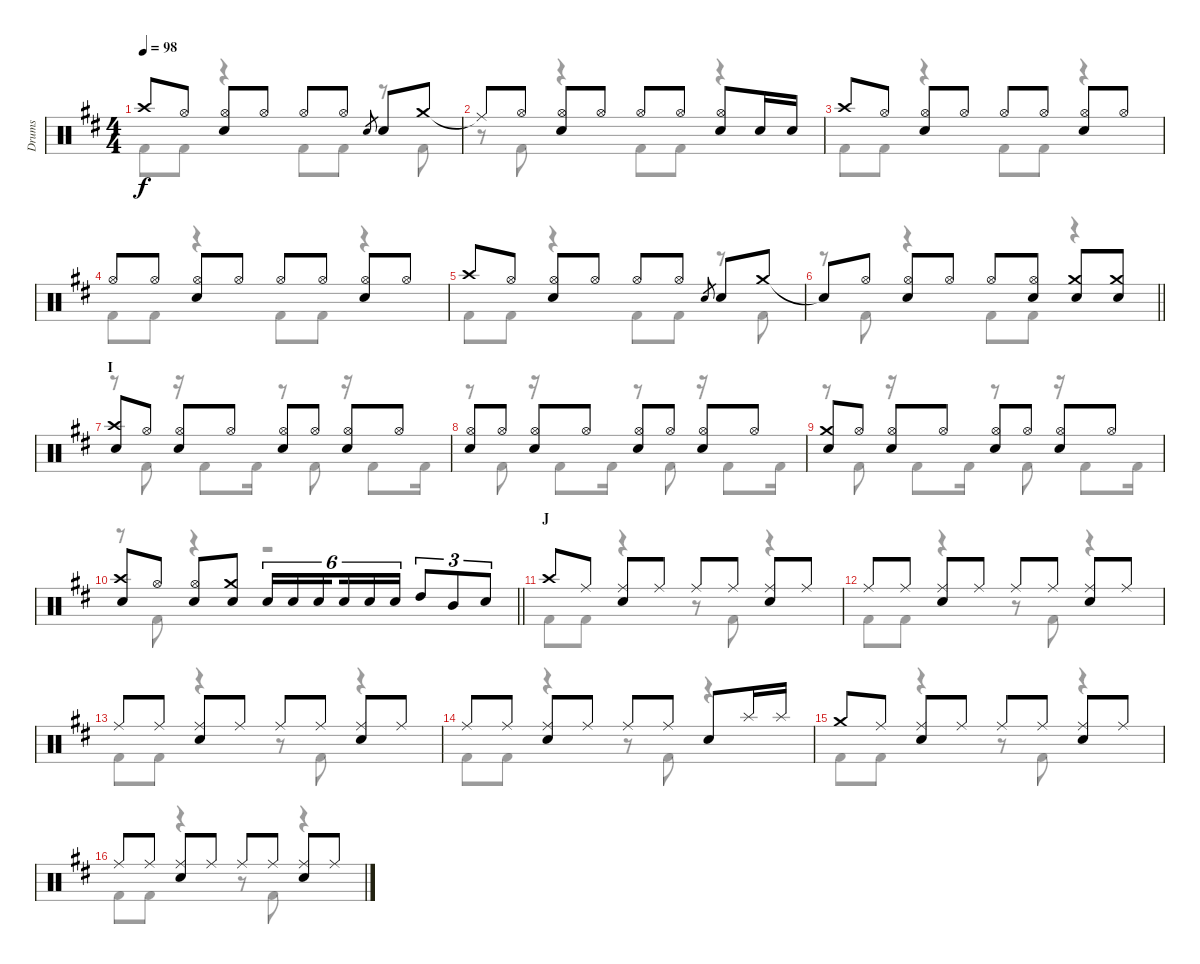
\track ("Drums" "Drums") {instrument percussion}
\staff {score}
\articulation defaults
\voice
\ts (4 4)
\tempo 98
\clef neutral
\ks d "Crash high (hit)".8{dy f} "Hi-Hat (open)".8
("Hi-Hat (open)" "Snare (hit) 2").8 "Hi-Hat (open)".8 "Hi-Hat (open)".8 "Hi-Hat (open)".8 "Snare (hit) 2".8{gr} "Snare (hit) 2".8 "Crash medium (hit)".8 |
"Ride (middle)"{t}.8 "Hi-Hat (open)".8 ("Hi-Hat (open)" "Snare (hit) 2").8 "Hi-Hat (open)".8 "Hi-Hat (open)".8 "Hi-Hat (open)".8 ("Hi-Hat (open)" "Snare (hit) 2").8 "Snare (hit) 2".16 "Snare (hit) 2".16 |
"Crash high (hit)".8 "Hi-Hat (open)".8 ("Hi-Hat (open)" "Snare (hit) 2").8 "Hi-Hat (open)".8 "Hi-Hat (open)".8 "Hi-Hat (open)".8 ("Hi-Hat (open)" "Snare (hit) 2").8 "Hi-Hat (open)".8 |
"Hi-Hat (open)".8 "Hi-Hat (open)".8 ("Hi-Hat (open)" "Snare (hit) 2").8 "Hi-Hat (open)".8 "Hi-Hat (open)".8 "Hi-Hat (open)".8 ("Hi-Hat (open)" "Snare (hit) 2").8 "Hi-Hat (open)".8 |
"Crash high (hit)".8 "Hi-Hat (open)".8 ("Hi-Hat (open)" "Snare (hit) 2").8 "Hi-Hat (open)".8 "Hi-Hat (open)".8 "Hi-Hat (open)".8 "Snare (hit) 2".8{gr} "Snare (hit) 2".8 "Crash medium (hit)".8 |
\barLineRight lightlight "Snare (hit)"{t}.8 "Hi-Hat (open)".8
("Hi-Hat (open)" "Snare (hit) 2").8 "Hi-Hat (open)".8 "Hi-Hat (open)".8 ("Hi-Hat (open)" "Snare (hit) 2").8 ("Crash medium (hit)" "Snare (hit) 2").8 ("Crash medium (hit)" "Snare (hit) 2").8 |
\section ("" "I")
("Crash high (hit)" "Snare (hit) 2").8 "Hi-Hat (open)".8 ("Hi-Hat (open)" "Snare (hit) 2").8 "Hi-Hat (open)".8 ("Hi-Hat (open)" "Snare (hit) 2").8 "Hi-Hat (open)".8 ("Hi-Hat (open)" "Snare (hit) 2").8 "Hi-Hat (open)".8 |
("Hi-Hat (open)" "Snare (hit) 2").8 "Hi-Hat (open)".8 ("Hi-Hat (open)" "Snare (hit) 2").8 "Hi-Hat (open)".8 ("Hi-Hat (open)" "Snare (hit) 2").8 "Hi-Hat (open)".8 ("Hi-Hat (open)" "Snare (hit) 2").8 "Hi-Hat (open)".8 |
("Crash medium (hit)" "Snare (hit) 2").8 "Hi-Hat (open)".8 ("Hi-Hat (open)" "Snare (hit) 2").8 "Hi-Hat (open)".8 ("Hi-Hat (open)" "Snare (hit) 2").8 "Hi-Hat (open)".8 ("Hi-Hat (open)" "Snare (hit) 2").8 "Hi-Hat (open)".8 |
\barLineRight lightlight
("Crash high (hit)" "Snare (hit) 2").8 "Hi-Hat (open)".8 ("Hi-Hat (open)" "Snare (hit) 2").8 ("Crash medium (hit)" "Snare (hit) 2").8 "Snare (hit) 2".16{tu (6 4)} "Snare (hit) 2".16{tu (6 4)} "Snare (hit) 2".16{tu (6 4) beam splitsecondary} "Snare (hit) 2".16{tu (6 4)} "Snare (hit) 2".16{tu (6 4)} "Snare (hit) 2".16{tu (6 4)} "High Tom (hit)".8{tu (3 2)} "Mid Tom (hit)".8{tu (3 2)} "Snare (hit) 2".8{tu (3 2)} |
\section ("" "J")
"Crash high (hit)".8 "Ride (middle)".8 ("Ride (middle)" "Snare (hit) 2").8 "Ride (middle)".8 "Ride (middle)".8 "Ride (middle)".8 ("Ride (middle)" "Snare (hit) 2").8 "Ride (middle)".8 |
"Ride (middle)".8 "Ride (middle)".8 ("Ride (middle)" "Snare (hit) 2").8 "Ride (middle)".8 "Ride (middle)".8 "Ride (middle)".8 ("Ride (middle)" "Snare (hit) 2").8 "Ride (middle)".8 |
"Ride (middle)".8 "Ride (middle)".8 ("Ride (middle)" "Snare (hit) 2").8 "Ride (middle)".8 "Ride (middle)".8 "Ride (middle)".8 ("Ride (middle)" "Snare (hit) 2").8 "Ride (middle)".8 |
"Ride (middle)".8 "Ride (middle)".8 ("Ride (middle)" "Snare (hit) 2").8 "Ride (middle)".8 "Ride (middle)".8 "Ride (middle)".8 "Snare (hit) 2".8 "Splash (hit)".16 "Splash (hit)".16 |
"Crash medium (hit)".8 "Ride (middle)".8 ("Ride (middle)" "Snare (hit) 2").8 "Ride (middle)".8 "Ride (middle)".8 "Ride (middle)".8 ("Ride (middle)" "Snare (hit) 2").8 "Ride (middle)".8 |
"Ride (middle)".8 "Ride (middle)".8 ("Ride (middle)" "Snare (hit) 2").8 "Ride (middle)".8 "Ride (middle)".8 "Ride (middle)".8 ("Ride (middle)" "Snare (hit) 2").8 "Ride (middle)".8
\voice
\clef neutral
\ottava regular
\simile none
\ks d "Kick (hit) 2".8{dy f} "Kick (hit) 2".8
r.4 "Kick (hit) 2".8 "Kick (hit) 2".8 r.8 "Kick (hit) 2".8 |
r.8 "Kick (hit) 2".8 r.4 "Kick (hit) 2".8 "Kick (hit) 2".8 r.4 |
"Kick (hit) 2".8 "Kick (hit) 2".8 r.4 "Kick (hit) 2".8 "Kick (hit) 2".8 r.4 |
"Kick (hit) 2".8 "Kick (hit) 2".8 r.4 "Kick (hit) 2".8 "Kick (hit) 2".8 r.4 |
"Kick (hit) 2".8 "Kick (hit) 2".8 r.4 "Kick (hit) 2".8 "Kick (hit) 2".8 r.8 "Kick (hit) 2".8 |
\barLineRight lightlight
r.8 "Kick (hit) 2".8 r.4 "Kick (hit) 2".8 "Kick (hit) 2".8 r.4 |
r.8 "Kick (hit) 2".8 r.16 "Kick (hit) 2".8 "Kick (hit) 2".16 r.8 "Kick (hit) 2".8 r.16 "Kick (hit) 2".8 "Kick (hit) 2".16 |
r.8 "Kick (hit) 2".8 r.16 "Kick (hit) 2".8 "Kick (hit) 2".16 r.8 "Kick (hit) 2".8 r.16 "Kick (hit) 2".8 "Kick (hit) 2".16 |
r.8 "Kick (hit) 2".8 r.16 "Kick (hit) 2".8 "Kick (hit) 2".16 r.8 "Kick (hit) 2".8 r.16 "Kick (hit) 2".8 "Kick (hit) 2".16 |
\barLineRight lightlight
r.8 "Kick (hit) 2".8 r.4 r.2 |
"Kick (hit) 2".8 "Kick (hit) 2".8 r.4 r.8 "Kick (hit) 2".8 r.4 |
"Kick (hit) 2".8 "Kick (hit) 2".8 r.4 r.8 "Kick (hit) 2".8 r.4 |
"Kick (hit) 2".8 "Kick (hit) 2".8 r.4 r.8 "Kick (hit) 2".8 r.4 |
"Kick (hit) 2".8 "Kick (hit) 2".8 r.4 r.8 "Kick (hit) 2".8 r.4 |
"Kick (hit) 2".8 "Kick (hit) 2".8 r.4 r.8 "Kick (hit) 2".8 r.4 |
"Kick (hit) 2".8 "Kick (hit) 2".8 r.4 r.8 "Kick (hit) 2".8 r.4
